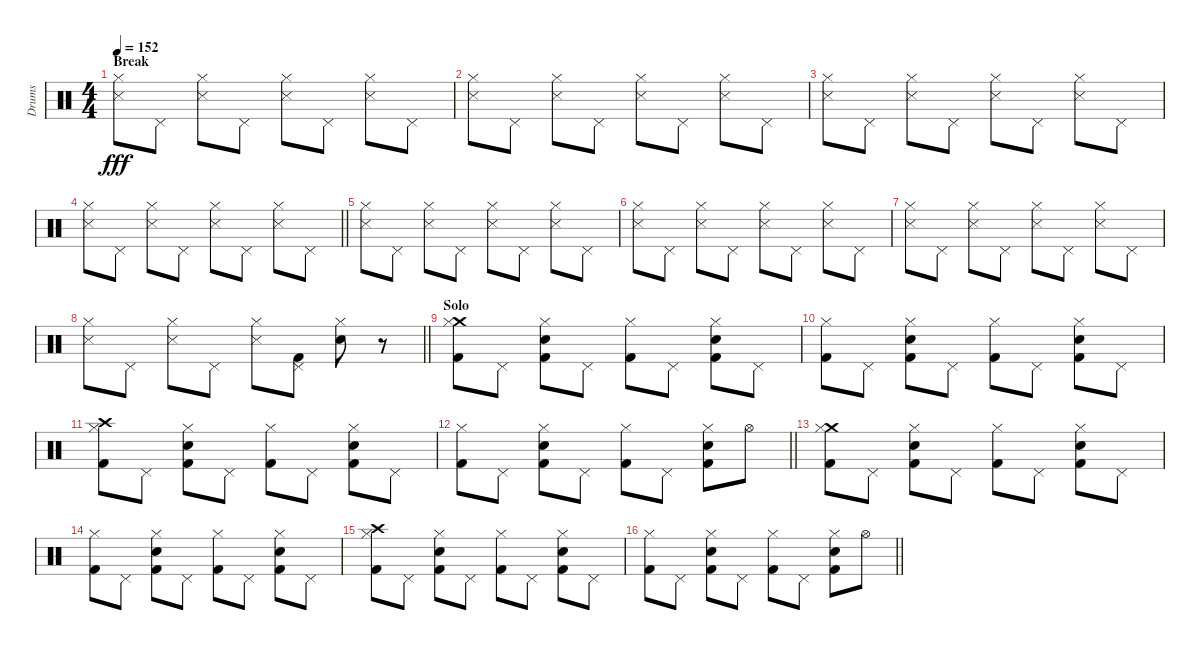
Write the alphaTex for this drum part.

\track ("Drums" "Drums") {instrument percussion}
\staff {score}
\articulation defaults
\ts (4 4)
\section ("" "Break")
\tempo 152
\clef neutral
\ks c
("Hi-Hat (closed)" "Snare (side stick) 3").8{dy fff} "Pedal Hi-Hat (hit)".8 ("Hi-Hat (closed)" "Snare (side stick) 3").8 "Pedal Hi-Hat (hit)".8 ("Hi-Hat (closed)" "Snare (side stick) 3").8 "Pedal Hi-Hat (hit)".8 ("Hi-Hat (closed)" "Snare (side stick) 3").8 "Pedal Hi-Hat (hit)".8 |
("Hi-Hat (closed)" "Snare (side stick) 3").8 "Pedal Hi-Hat (hit)".8 ("Hi-Hat (closed)" "Snare (side stick) 3").8 "Pedal Hi-Hat (hit)".8 ("Hi-Hat (closed)" "Snare (side stick) 3").8 "Pedal Hi-Hat (hit)".8 ("Hi-Hat (closed)" "Snare (side stick) 3").8 "Pedal Hi-Hat (hit)".8 |
("Hi-Hat (closed)" "Snare (side stick) 3").8 "Pedal Hi-Hat (hit)".8 ("Hi-Hat (closed)" "Snare (side stick) 3").8 "Pedal Hi-Hat (hit)".8 ("Hi-Hat (closed)" "Snare (side stick) 3").8 "Pedal Hi-Hat (hit)".8 ("Hi-Hat (closed)" "Snare (side stick) 3").8 "Pedal Hi-Hat (hit)".8 |
\barLineRight lightlight
("Hi-Hat (closed)" "Snare (side stick) 3").8 "Pedal Hi-Hat (hit)".8 ("Hi-Hat (closed)" "Snare (side stick) 3").8 "Pedal Hi-Hat (hit)".8 ("Hi-Hat (closed)" "Snare (side stick) 3").8 "Pedal Hi-Hat (hit)".8 ("Hi-Hat (closed)" "Snare (side stick) 3").8 "Pedal Hi-Hat (hit)".8 |
("Hi-Hat (closed)" "Snare (side stick) 3").8 "Pedal Hi-Hat (hit)".8 ("Hi-Hat (closed)" "Snare (side stick) 3").8 "Pedal Hi-Hat (hit)".8 ("Hi-Hat (closed)" "Snare (side stick) 3").8 "Pedal Hi-Hat (hit)".8 ("Hi-Hat (closed)" "Snare (side stick) 3").8 "Pedal Hi-Hat (hit)".8 |
("Hi-Hat (closed)" "Snare (side stick) 3").8 "Pedal Hi-Hat (hit)".8 ("Hi-Hat (closed)" "Snare (side stick) 3").8 "Pedal Hi-Hat (hit)".8 ("Hi-Hat (closed)" "Snare (side stick) 3").8 "Pedal Hi-Hat (hit)".8 ("Hi-Hat (closed)" "Snare (side stick) 3").8 "Pedal Hi-Hat (hit)".8 |
("Hi-Hat (closed)" "Snare (side stick) 3").8 "Pedal Hi-Hat (hit)".8 ("Hi-Hat (closed)" "Snare (side stick) 3").8 "Pedal Hi-Hat (hit)".8 ("Hi-Hat (closed)" "Snare (side stick) 3").8 "Pedal Hi-Hat (hit)".8 ("Hi-Hat (closed)" "Snare (side stick) 3").8 "Pedal Hi-Hat (hit)".8 |
\barLineRight lightlight
("Hi-Hat (closed)" "Snare (side stick) 3").8 "Pedal Hi-Hat (hit)".8 ("Hi-Hat (closed)" "Snare (side stick) 3").8 "Pedal Hi-Hat (hit)".8 ("Hi-Hat (closed)" "Snare (side stick) 3").8 ("Pedal Hi-Hat (hit)" "Kick (hit) 2").8 ("Hi-Hat (closed)" "Electric Snare (hit)").8 r.8 |
\section ("" "Solo")
("Crash medium (hit)" "Hi-Hat (closed)" "Kick (hit) 2").8 "Pedal Hi-Hat (hit)".8 ("Hi-Hat (closed)" "Electric Snare (hit)" "Kick (hit) 2").8 "Pedal Hi-Hat (hit)".8 ("Hi-Hat (closed)" "Kick (hit) 2").8 "Pedal Hi-Hat (hit)".8 ("Hi-Hat (closed)" "Electric Snare (hit)" "Kick (hit) 2").8 "Pedal Hi-Hat (hit)".8 |
("Hi-Hat (closed)" "Kick (hit) 2").8 "Pedal Hi-Hat (hit)".8 ("Hi-Hat (closed)" "Electric Snare (hit)" "Kick (hit) 2").8 "Pedal Hi-Hat (hit)".8 ("Hi-Hat (closed)" "Kick (hit) 2").8 "Pedal Hi-Hat (hit)".8 ("Hi-Hat (closed)" "Electric Snare (hit)" "Kick (hit) 2").8 "Pedal Hi-Hat (hit)".8 |
("Crash high (hit)" "Hi-Hat (closed)" "Kick (hit) 2").8 "Pedal Hi-Hat (hit)".8 ("Hi-Hat (closed)" "Electric Snare (hit)" "Kick (hit) 2").8 "Pedal Hi-Hat (hit)".8 ("Hi-Hat (closed)" "Kick (hit) 2").8 "Pedal Hi-Hat (hit)".8 ("Hi-Hat (closed)" "Electric Snare (hit)" "Kick (hit) 2").8 "Pedal Hi-Hat (hit)".8 |
\barLineRight lightlight
("Hi-Hat (closed)" "Kick (hit) 2").8 "Pedal Hi-Hat (hit)".8 ("Hi-Hat (closed)" "Electric Snare (hit)" "Kick (hit) 2").8 "Pedal Hi-Hat (hit)".8 ("Hi-Hat (closed)" "Kick (hit) 2").8 "Pedal Hi-Hat (hit)".8 ("Hi-Hat (closed)" "Electric Snare (hit)" "Kick (hit) 2").8 "Hi-Hat (open)".8 |
("Crash medium (hit)" "Hi-Hat (closed)" "Kick (hit) 2").8 "Pedal Hi-Hat (hit)".8 ("Hi-Hat (closed)" "Electric Snare (hit)" "Kick (hit) 2").8 "Pedal Hi-Hat (hit)".8 ("Hi-Hat (closed)" "Kick (hit) 2").8 "Pedal Hi-Hat (hit)".8 ("Hi-Hat (closed)" "Electric Snare (hit)" "Kick (hit) 2").8 "Pedal Hi-Hat (hit)".8 |
("Hi-Hat (closed)" "Kick (hit) 2").8 "Pedal Hi-Hat (hit)".8 ("Hi-Hat (closed)" "Electric Snare (hit)" "Kick (hit) 2").8 "Pedal Hi-Hat (hit)".8 ("Hi-Hat (closed)" "Kick (hit) 2").8 "Pedal Hi-Hat (hit)".8 ("Hi-Hat (closed)" "Electric Snare (hit)" "Kick (hit) 2").8 "Pedal Hi-Hat (hit)".8 |
("Crash high (hit)" "Hi-Hat (closed)" "Kick (hit) 2").8 "Pedal Hi-Hat (hit)".8 ("Hi-Hat (closed)" "Electric Snare (hit)" "Kick (hit) 2").8 "Pedal Hi-Hat (hit)".8 ("Hi-Hat (closed)" "Kick (hit) 2").8 "Pedal Hi-Hat (hit)".8 ("Hi-Hat (closed)" "Electric Snare (hit)" "Kick (hit) 2").8 "Pedal Hi-Hat (hit)".8 |
\barLineRight lightlight
("Hi-Hat (closed)" "Kick (hit) 2").8 "Pedal Hi-Hat (hit)".8 ("Hi-Hat (closed)" "Electric Snare (hit)" "Kick (hit) 2").8 "Pedal Hi-Hat (hit)".8 ("Hi-Hat (closed)" "Kick (hit) 2").8 "Pedal Hi-Hat (hit)".8 ("Hi-Hat (closed)" "Electric Snare (hit)" "Kick (hit) 2").8 "Hi-Hat (open)".8
